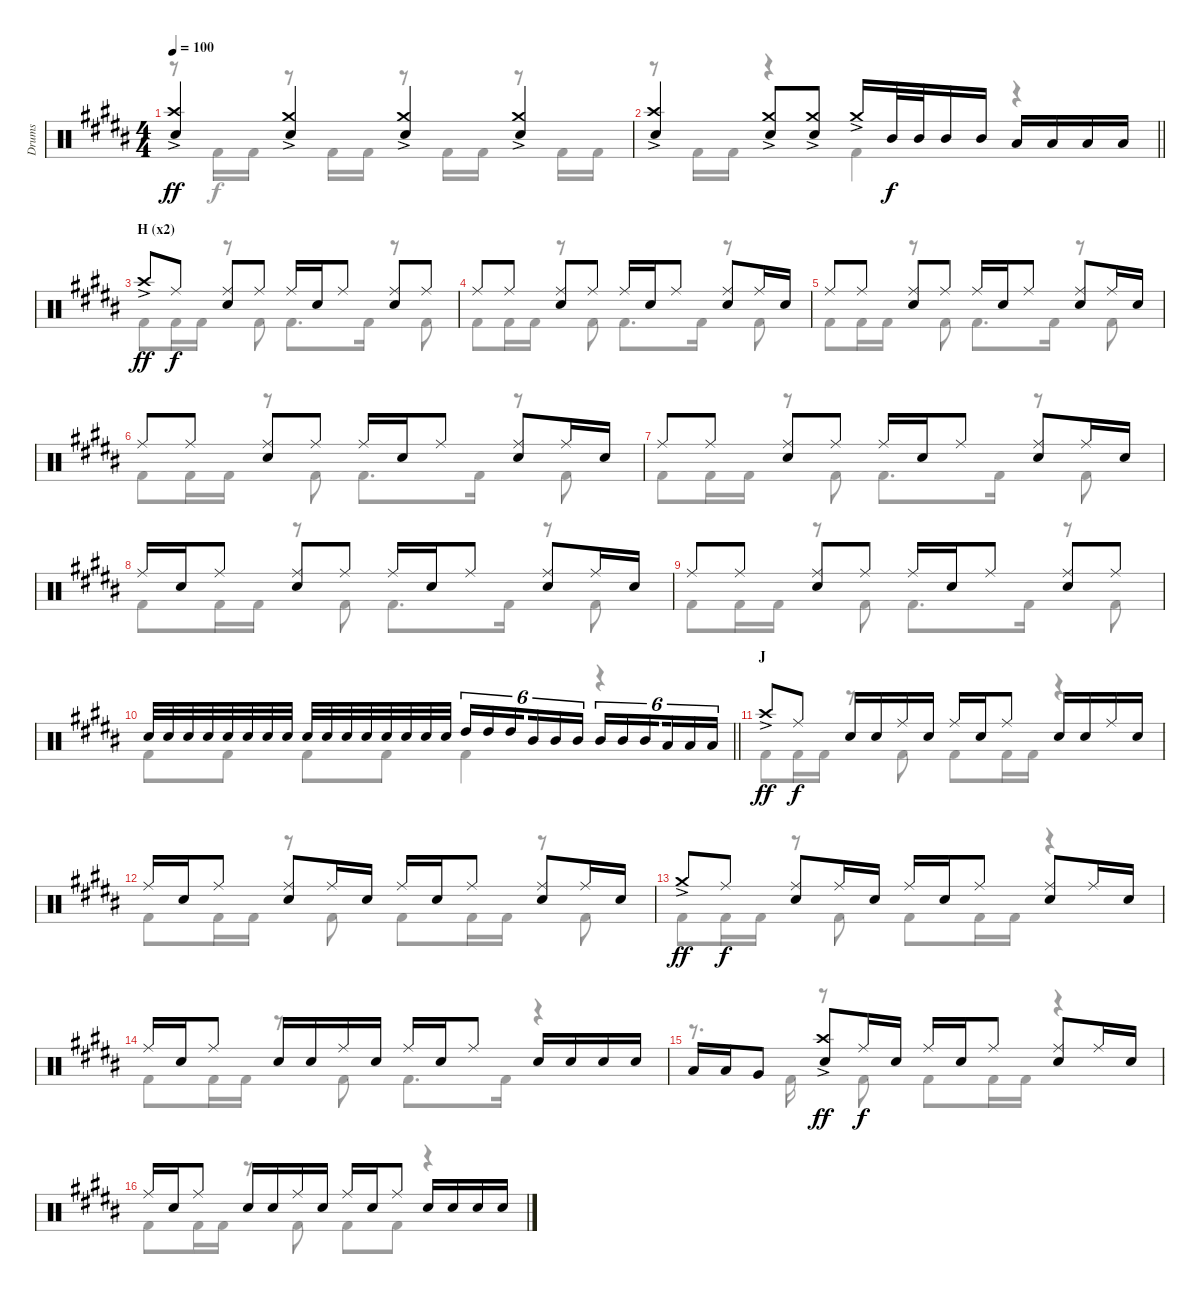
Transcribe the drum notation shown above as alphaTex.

\track ("Drums" "Drums") {instrument percussion}
\staff {score}
\articulation defaults
\voice
\ts (4 4)
\tempo 100
\clef neutral
\ks b
("Crash high (hit)"{ac} "Electric Snare (hit)").4{dy ff} ("Crash medium (hit)"{ac} "Electric Snare (hit)").4 ("Crash medium (hit)"{ac} "Electric Snare (hit)").4 ("Crash medium (hit)"{ac} "Electric Snare (hit)").4 |
\barLineRight lightlight
("Crash high (hit)"{ac} "Electric Snare (hit)").4 ("Crash medium (hit)"{ac} "Electric Snare (hit)").8 ("Crash medium (hit)"{ac} "Electric Snare (hit)").8 "Crash medium (hit)"{ac}.16 "Mid Tom (hit)".32{dy f} "Mid Tom (hit)".32 "Mid Tom (hit)".16 "Mid Tom (hit)".16 "Low Tom (hit)".16 "Low Tom (hit)".16 "Low Tom (hit)".16 "Low Tom (hit)".16 |
\section ("" "H (x2)")
"Crash high (hit)"{ac}.8{dy ff} "Ride (middle)".8{dy f} ("Ride (middle)" "Electric Snare (hit)").8 "Ride (middle)".8 "Ride (middle)".16 "Electric Snare (hit)".16 "Ride (middle)".8 ("Ride (middle)" "Electric Snare (hit)").8 "Ride (middle)".8 |
"Ride (middle)".8 "Ride (middle)".8 ("Ride (middle)" "Electric Snare (hit)").8 "Ride (middle)".8 "Ride (middle)".16 "Electric Snare (hit)".16 "Ride (middle)".8 ("Ride (middle)" "Electric Snare (hit)").8 "Ride (middle)".16 "Electric Snare (hit)".16 |
"Ride (middle)".8 "Ride (middle)".8 ("Ride (middle)" "Electric Snare (hit)").8 "Ride (middle)".8 "Ride (middle)".16 "Electric Snare (hit)".16 "Ride (middle)".8 ("Ride (middle)" "Electric Snare (hit)").8 "Ride (middle)".16 "Electric Snare (hit)".16 |
"Ride (middle)".8 "Ride (middle)".8 ("Ride (middle)" "Electric Snare (hit)").8 "Ride (middle)".8 "Ride (middle)".16 "Electric Snare (hit)".16 "Ride (middle)".8 ("Ride (middle)" "Electric Snare (hit)").8 "Ride (middle)".16 "Electric Snare (hit)".16 |
"Ride (middle)".8 "Ride (middle)".8 ("Ride (middle)" "Electric Snare (hit)").8 "Ride (middle)".8 "Ride (middle)".16 "Electric Snare (hit)".16 "Ride (middle)".8 ("Ride (middle)" "Electric Snare (hit)").8 "Ride (middle)".16 "Electric Snare (hit)".16 |
"Ride (middle)".16 "Electric Snare (hit)".16 "Ride (middle)".8 ("Ride (middle)" "Electric Snare (hit)").8 "Ride (middle)".8 "Ride (middle)".16 "Electric Snare (hit)".16 "Ride (middle)".8 ("Ride (middle)" "Electric Snare (hit)").8 "Ride (middle)".16 "Electric Snare (hit)".16 |
"Ride (middle)".8 "Ride (middle)".8 ("Ride (middle)" "Electric Snare (hit)").8 "Ride (middle)".8 "Ride (middle)".16 "Electric Snare (hit)".16 "Ride (middle)".8 ("Ride (middle)" "Electric Snare (hit)").8 "Ride (middle)".8 |
\barLineRight lightlight "Electric Snare (hit)".32 "Electric Snare (hit)".32 "Electric Snare (hit)".32 "Electric Snare (hit)".32 "Electric Snare (hit)".32 "Electric Snare (hit)".32 "Electric Snare (hit)".32 "Electric Snare (hit)".32 "Electric Snare (hit)".32 "Electric Snare (hit)".32 "Electric Snare (hit)".32 "Electric Snare (hit)".32 "Electric Snare (hit)".32 "Electric Snare (hit)".32 "Electric Snare (hit)".32 "Electric Snare (hit)".32 "High Tom (hit)".16{tu (6 4)} "High Tom (hit)".16{tu (6 4)} "High Tom (hit)".16{tu (6 4) beam splitsecondary} "Mid Tom (hit)".16{tu (6 4)} "Mid Tom (hit)".16{tu (6 4)} "Mid Tom (hit)".16{tu (6 4)} "Mid Tom (hit)".16{tu (6 4)} "Mid Tom (hit)".16{tu (6 4)} "Mid Tom (hit)".16{tu (6 4) beam splitsecondary} "Low Tom (hit)".16{tu (6 4)} "Low Tom (hit)".16{tu (6 4)} "Low Tom (hit)".16{tu (6 4)}
|
\section ("" "J")
"Crash high (hit)"{ac}.8{dy ff} "Ride (middle)".8{dy f} "Electric Snare (hit)".16 "Electric Snare (hit)".16 "Ride (middle)".16 "Electric Snare (hit)".16 "Ride (middle)".16 "Electric Snare (hit)".16 "Ride (middle)".8 "Electric Snare (hit)".16 "Electric Snare (hit)".16 "Ride (middle)".16 "Electric Snare (hit)".16 |
"Ride (middle)".16 "Electric Snare (hit)".16 "Ride (middle)".8 ("Ride (middle)" "Electric Snare (hit)").8 "Ride (middle)".16 "Electric Snare (hit)".16 "Ride (middle)".16 "Electric Snare (hit)".16 "Ride (middle)".8 ("Ride (middle)" "Electric Snare (hit)").8 "Ride (middle)".16 "Electric Snare (hit)".16 |
"Crash medium (hit)"{ac}.8{dy ff} "Ride (middle)".8{dy f} ("Ride (middle)" "Electric Snare (hit)").8 "Ride (middle)".16 "Electric Snare (hit)".16 "Ride (middle)".16 "Electric Snare (hit)".16 "Ride (middle)".8 ("Ride (middle)" "Electric Snare (hit)").8 "Ride (middle)".16 "Electric Snare (hit)".16 |
"Ride (middle)".16 "Electric Snare (hit)".16 "Ride (middle)".8 "Electric Snare (hit)".16 "Electric Snare (hit)".16 "Ride (middle)".16 "Electric Snare (hit)".16 "Ride (middle)".16 "Electric Snare (hit)".16 "Ride (middle)".8 "Electric Snare (hit)".16 "Electric Snare (hit)".16 "Electric Snare (hit)".16 "Electric Snare (hit)".16 |
"Low Tom (hit)".16 "Low Tom (hit)".16 "Very Low Tom (hit)".8 ("Crash high (hit)"{ac} "Electric Snare (hit)").8{dy ff} "Ride (middle)".16{dy f} "Electric Snare (hit)".16 "Ride (middle)".16 "Electric Snare (hit)".16 "Ride (middle)".8 ("Ride (middle)" "Electric Snare (hit)").8 "Ride (middle)".16 "Electric Snare (hit)".16 |
"Ride (middle)".16 "Electric Snare (hit)".16 "Ride (middle)".8 "Electric Snare (hit)".16 "Electric Snare (hit)".16 "Ride (middle)".16 "Electric Snare (hit)".16 "Ride (middle)".16 "Electric Snare (hit)".16 "Ride (middle)".8 "Electric Snare (hit)".16 "Electric Snare (hit)".16 "Electric Snare (hit)".16 "Electric Snare (hit)".16
\voice
\clef neutral
\ottava regular
\simile none
\ks b
r.8{dy f} "Kick (hit) 2".16 "Kick (hit) 2".16 r.8 "Kick (hit) 2".16 "Kick (hit) 2".16 r.8 "Kick (hit) 2".16 "Kick (hit) 2".16 r.8 "Kick (hit) 2".16 "Kick (hit) 2".16 |
\barLineRight lightlight
r.8 "Kick (hit) 2".16 "Kick (hit) 2".16 r.4 "Kick (hit) 2".4 r.4 |
"Kick (hit) 2".8 "Kick (hit) 2".16 "Kick (hit) 2".16 r.8 "Kick (hit) 2".8 "Kick (hit) 2".8{d} "Kick (hit) 2".16 r.8 "Kick (hit) 2".8 |
"Kick (hit) 2".8 "Kick (hit) 2".16 "Kick (hit) 2".16 r.8 "Kick (hit) 2".8 "Kick (hit) 2".8{d} "Kick (hit) 2".16 r.8 "Kick (hit) 2".8 |
"Kick (hit) 2".8 "Kick (hit) 2".16 "Kick (hit) 2".16 r.8 "Kick (hit) 2".8 "Kick (hit) 2".8{d} "Kick (hit) 2".16 r.8 "Kick (hit) 2".8 |
"Kick (hit) 2".8 "Kick (hit) 2".16 "Kick (hit) 2".16 r.8 "Kick (hit) 2".8 "Kick (hit) 2".8{d} "Kick (hit) 2".16 r.8 "Kick (hit) 2".8 |
"Kick (hit) 2".8 "Kick (hit) 2".16 "Kick (hit) 2".16 r.8 "Kick (hit) 2".8 "Kick (hit) 2".8{d} "Kick (hit) 2".16 r.8 "Kick (hit) 2".8 |
"Kick (hit) 2".8 "Kick (hit) 2".16 "Kick (hit) 2".16 r.8 "Kick (hit) 2".8 "Kick (hit) 2".8{d} "Kick (hit) 2".16 r.8 "Kick (hit) 2".8 |
"Kick (hit) 2".8 "Kick (hit) 2".16 "Kick (hit) 2".16 r.8 "Kick (hit) 2".8 "Kick (hit) 2".8{d} "Kick (hit) 2".16 r.8 "Kick (hit) 2".8 |
\barLineRight lightlight "Kick (hit) 2".8 "Kick (hit) 2".8 "Kick (hit) 2".8 "Kick (hit) 2".8 "Kick (hit) 2".4
r.4 |
"Kick (hit) 2".8 "Kick (hit) 2".16 "Kick (hit) 2".16 r.8 "Kick (hit) 2".8 "Kick (hit) 2".8 "Kick (hit) 2".16 "Kick (hit) 2".16 r.4 |
"Kick (hit) 2".8 "Kick (hit) 2".16 "Kick (hit) 2".16 r.8 "Kick (hit) 2".8 "Kick (hit) 2".8 "Kick (hit) 2".16 "Kick (hit) 2".16 r.8 "Kick (hit) 2".8 |
"Kick (hit) 2".8 "Kick (hit) 2".16 "Kick (hit) 2".16 r.8 "Kick (hit) 2".8 "Kick (hit) 2".8 "Kick (hit) 2".16 "Kick (hit) 2".16 r.4 |
"Kick (hit) 2".8 "Kick (hit) 2".16 "Kick (hit) 2".16 r.8 "Kick (hit) 2".8 "Kick (hit) 2".8{d} "Kick (hit) 2".16 r.4 |
r.8{d} "Kick (hit) 2".16 r.8 "Kick (hit) 2".8 "Kick (hit) 2".8 "Kick (hit) 2".16 "Kick (hit) 2".16 r.4 |
"Kick (hit) 2".8 "Kick (hit) 2".16 "Kick (hit) 2".16 r.8 "Kick (hit) 2".8 "Kick (hit) 2".8 "Kick (hit) 2".8 r.4
